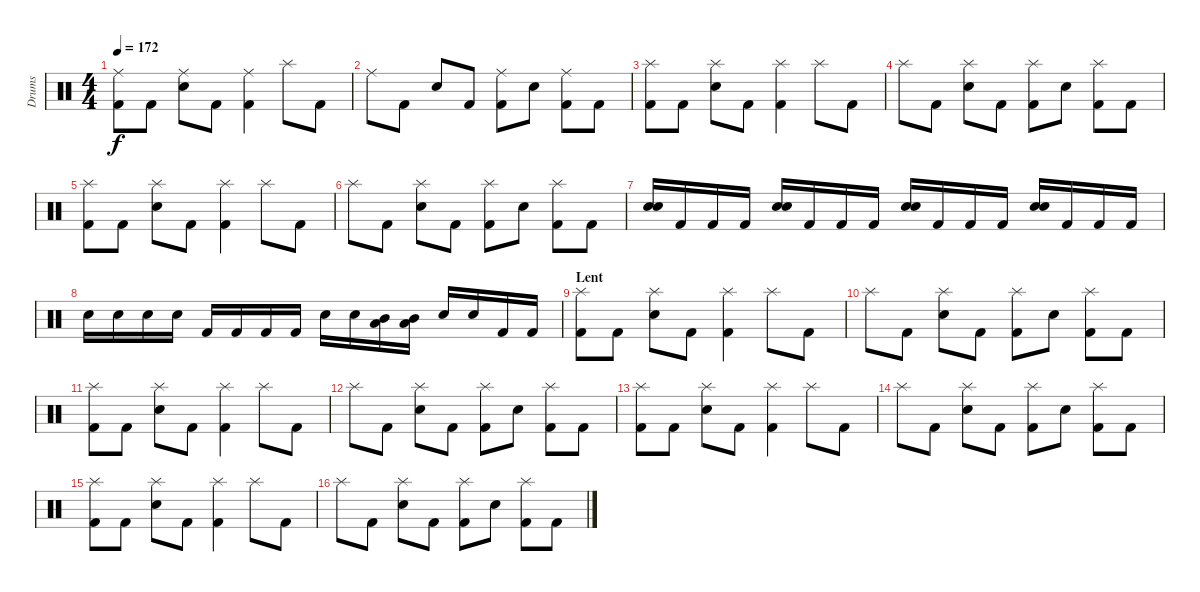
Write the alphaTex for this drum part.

\track ("Drums" "Drums") {instrument percussion}
\staff {score}
\articulation defaults
\ts (4 4)
\tempo 172
\clef neutral
\ks c
("Ride (middle)" "Kick (hit) 2").8{dy f} "Kick (hit) 2".8 ("Ride (middle)" "Electric Snare (hit)").8 "Kick (hit) 2".8 ("Ride (middle)" "Kick (hit) 2").4 "Splash (hit)".8 "Kick (hit) 2".8 |
"Ride (middle)".8 "Kick (hit) 2".8 "Electric Snare (hit)".8 "Kick (hit) 2".8 ("Ride (middle)" "Kick (hit) 2").8 "Electric Snare (hit)".8 ("Ride (middle)" "Kick (hit) 2").8 "Kick (hit) 2".8 |
("Splash (hit)" "Kick (hit) 2").8 "Kick (hit) 2".8 ("Splash (hit)" "Electric Snare (hit)").8 "Kick (hit) 2".8 ("Splash (hit)" "Kick (hit) 2").4 "Splash (hit)".8 "Kick (hit) 2".8 |
"Splash (hit)".8 "Kick (hit) 2".8 ("Splash (hit)" "Electric Snare (hit)").8 "Kick (hit) 2".8 ("Splash (hit)" "Kick (hit) 2").8 "Electric Snare (hit)".8 ("Splash (hit)" "Kick (hit) 2").8 "Kick (hit) 2".8 |
("Splash (hit)" "Kick (hit) 2").8 "Kick (hit) 2".8 ("Splash (hit)" "Electric Snare (hit)").8 "Kick (hit) 2".8 ("Splash (hit)" "Kick (hit) 2").4 "Splash (hit)".8 "Kick (hit) 2".8 |
"Splash (hit)".8 "Kick (hit) 2".8 ("Splash (hit)" "Electric Snare (hit)").8 "Kick (hit) 2".8 ("Splash (hit)" "Kick (hit) 2").8 "Electric Snare (hit)".8 ("Splash (hit)" "Kick (hit) 2").8 "Kick (hit) 2".8 |
("Electric Snare (hit)" "Electric Snare (hit)").16{bd 480} "Kick (hit) 2".16 "Kick (hit) 2".16 "Kick (hit) 2".16 ("Electric Snare (hit)" "Electric Snare (hit)").16{bd 480} "Kick (hit) 2".16 "Kick (hit) 2".16 "Kick (hit) 2".16 ("Electric Snare (hit)" "Electric Snare (hit)").16{bd 480} "Kick (hit) 2".16 "Kick (hit) 2".16 "Kick (hit) 2".16 ("Electric Snare (hit)" "Electric Snare (hit)").16{bd 480} "Kick (hit) 2".16 "Kick (hit) 2".16 "Kick (hit) 2".16 |
"Electric Snare (hit)".16 "Electric Snare (hit)".16 "Electric Snare (hit)".16 "Electric Snare (hit)".16 "Kick (hit) 2".16 "Kick (hit) 2".16 "Kick (hit) 2".16 "Kick (hit) 2".16 "Electric Snare (hit)".16 "Electric Snare (hit)".16 ("Mid Tom (hit)" "Low Tom (hit)").16 ("Mid Tom (hit)" "Low Tom (hit)").16 "Electric Snare (hit)".16 "Electric Snare (hit)".16 "Kick (hit) 2".16 "Kick (hit) 2".16 |
\section ("" "Lent")
("Splash (hit)" "Kick (hit) 2").8 "Kick (hit) 2".8 ("Splash (hit)" "Electric Snare (hit)").8 "Kick (hit) 2".8 ("Splash (hit)" "Kick (hit) 2").4 "Splash (hit)".8 "Kick (hit) 2".8 |
"Splash (hit)".8 "Kick (hit) 2".8 ("Splash (hit)" "Electric Snare (hit)").8 "Kick (hit) 2".8 ("Splash (hit)" "Kick (hit) 2").8 "Electric Snare (hit)".8 ("Splash (hit)" "Kick (hit) 2").8 "Kick (hit) 2".8 |
("Splash (hit)" "Kick (hit) 2").8 "Kick (hit) 2".8 ("Splash (hit)" "Electric Snare (hit)").8 "Kick (hit) 2".8 ("Splash (hit)" "Kick (hit) 2").4 "Splash (hit)".8 "Kick (hit) 2".8 |
"Splash (hit)".8 "Kick (hit) 2".8 ("Splash (hit)" "Electric Snare (hit)").8 "Kick (hit) 2".8 ("Splash (hit)" "Kick (hit) 2").8 "Electric Snare (hit)".8 ("Splash (hit)" "Kick (hit) 2").8 "Kick (hit) 2".8 |
("Splash (hit)" "Kick (hit) 2").8 "Kick (hit) 2".8 ("Splash (hit)" "Electric Snare (hit)").8 "Kick (hit) 2".8 ("Splash (hit)" "Kick (hit) 2").4 "Splash (hit)".8 "Kick (hit) 2".8 |
"Splash (hit)".8 "Kick (hit) 2".8 ("Splash (hit)" "Electric Snare (hit)").8 "Kick (hit) 2".8 ("Splash (hit)" "Kick (hit) 2").8 "Electric Snare (hit)".8 ("Splash (hit)" "Kick (hit) 2").8 "Kick (hit) 2".8 |
("Splash (hit)" "Kick (hit) 2").8 "Kick (hit) 2".8 ("Splash (hit)" "Electric Snare (hit)").8 "Kick (hit) 2".8 ("Splash (hit)" "Kick (hit) 2").4 "Splash (hit)".8 "Kick (hit) 2".8 |
"Splash (hit)".8 "Kick (hit) 2".8 ("Splash (hit)" "Electric Snare (hit)").8 "Kick (hit) 2".8 ("Splash (hit)" "Kick (hit) 2").8 "Electric Snare (hit)".8 ("Splash (hit)" "Kick (hit) 2").8 "Kick (hit) 2".8
